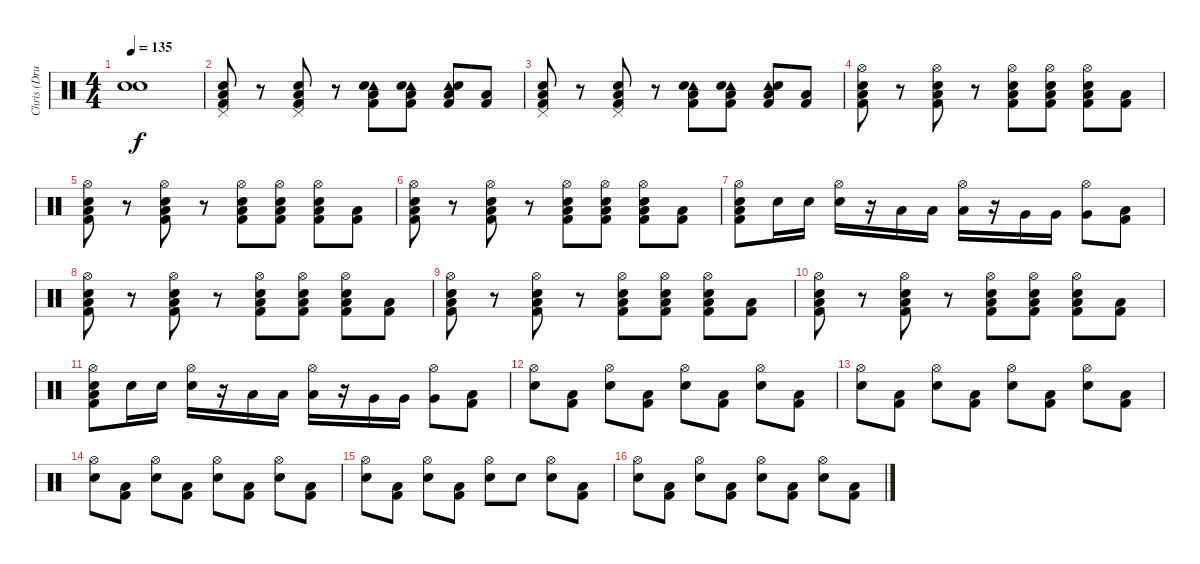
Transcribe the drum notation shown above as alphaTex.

\track ("Chris (Drums)" "Chris (Dru") {instrument percussion}
\staff {score}
\articulation defaults
\ts (4 4)
\tempo 135
\clef neutral
\ks c
("Snare (hit)"{t} "Snare (hit)"{t}).1{dy f} |
("Pedal Hi-Hat (hit)" "Low Floor Tom (hit)" "Snare (hit) 2" "Kick (hit) 2").8 r.8 ("Pedal Hi-Hat (hit)" "Low Floor Tom (hit)" "Snare (hit) 2" "Kick (hit) 2").8 r.8 ("Tambourine (hit)" "Low Floor Tom (hit)" "Snare (hit) 2" "Kick (hit) 2").8 ("Tambourine (hit)" "Low Floor Tom (hit)" "Snare (hit) 2" "Kick (hit) 2").8 ("Tambourine (hit)" "Low Floor Tom (hit)" "Snare (hit) 2" "Kick (hit) 2").8 ("Low Floor Tom (hit)" "Kick (hit) 2").8 |
("Pedal Hi-Hat (hit)" "Low Floor Tom (hit)" "Snare (hit) 2" "Kick (hit) 2").8 r.8 ("Pedal Hi-Hat (hit)" "Low Floor Tom (hit)" "Snare (hit) 2" "Kick (hit) 2").8 r.8 ("Tambourine (hit)" "Low Floor Tom (hit)" "Snare (hit) 2" "Kick (hit) 2").8 ("Tambourine (hit)" "Low Floor Tom (hit)" "Snare (hit) 2" "Kick (hit) 2").8 ("Tambourine (hit)" "Low Floor Tom (hit)" "Snare (hit) 2" "Kick (hit) 2").8 ("Low Floor Tom (hit)" "Kick (hit) 2").8 |
("Hi-Hat (open)" "Low Floor Tom (hit)" "Snare (hit) 2" "Kick (hit) 2").8 r.8 ("Hi-Hat (open)" "Low Floor Tom (hit)" "Snare (hit) 2" "Kick (hit) 2").8 r.8 ("Hi-Hat (open)" "Low Floor Tom (hit)" "Snare (hit) 2" "Kick (hit) 2").8 ("Hi-Hat (open)" "Low Floor Tom (hit)" "Snare (hit) 2" "Kick (hit) 2").8 ("Hi-Hat (open)" "Low Floor Tom (hit)" "Snare (hit) 2" "Kick (hit) 2").8 ("Low Floor Tom (hit)" "Kick (hit) 2").8 |
("Hi-Hat (open)" "Low Floor Tom (hit)" "Snare (hit) 2" "Kick (hit) 2").8 r.8 ("Hi-Hat (open)" "Low Floor Tom (hit)" "Snare (hit) 2" "Kick (hit) 2").8 r.8 ("Hi-Hat (open)" "Low Floor Tom (hit)" "Snare (hit) 2" "Kick (hit) 2").8 ("Hi-Hat (open)" "Low Floor Tom (hit)" "Snare (hit) 2" "Kick (hit) 2").8 ("Hi-Hat (open)" "Low Floor Tom (hit)" "Snare (hit) 2" "Kick (hit) 2").8 ("Low Floor Tom (hit)" "Kick (hit) 2").8 |
("Hi-Hat (open)" "Low Floor Tom (hit)" "Snare (hit) 2" "Kick (hit) 2").8 r.8 ("Hi-Hat (open)" "Low Floor Tom (hit)" "Snare (hit) 2" "Kick (hit) 2").8 r.8 ("Hi-Hat (open)" "Low Floor Tom (hit)" "Snare (hit) 2" "Kick (hit) 2").8 ("Hi-Hat (open)" "Low Floor Tom (hit)" "Snare (hit) 2" "Kick (hit) 2").8 ("Hi-Hat (open)" "Low Floor Tom (hit)" "Snare (hit) 2" "Kick (hit) 2").8 ("Low Floor Tom (hit)" "Kick (hit) 2").8 |
("Hi-Hat (open)" "Snare (hit) 2" "Low Floor Tom (hit)" "Kick (hit) 2").8 "Snare (hit) 2".16 "Snare (hit) 2".16 ("Hi-Hat (open)" "Snare (hit) 2").16 r.16 "Low Tom (hit)".16 "Low Tom (hit)".16 ("Hi-Hat (open)" "Low Tom (hit)").16 r.16 "Very Low Tom (hit)".16 "Very Low Tom (hit)".16 ("Hi-Hat (open)" "Very Low Tom (hit)").8 ("Low Floor Tom (hit)" "Kick (hit) 2").8 |
("Hi-Hat (open)" "Low Floor Tom (hit)" "Snare (hit) 2" "Kick (hit) 2").8 r.8 ("Hi-Hat (open)" "Low Floor Tom (hit)" "Snare (hit) 2" "Kick (hit) 2").8 r.8 ("Hi-Hat (open)" "Low Floor Tom (hit)" "Snare (hit) 2" "Kick (hit) 2").8 ("Hi-Hat (open)" "Low Floor Tom (hit)" "Snare (hit) 2" "Kick (hit) 2").8 ("Hi-Hat (open)" "Low Floor Tom (hit)" "Snare (hit) 2" "Kick (hit) 2").8 ("Low Floor Tom (hit)" "Kick (hit) 2").8 |
("Hi-Hat (open)" "Low Floor Tom (hit)" "Snare (hit) 2" "Kick (hit) 2").8 r.8 ("Hi-Hat (open)" "Low Floor Tom (hit)" "Snare (hit) 2" "Kick (hit) 2").8 r.8 ("Hi-Hat (open)" "Low Floor Tom (hit)" "Snare (hit) 2" "Kick (hit) 2").8 ("Hi-Hat (open)" "Low Floor Tom (hit)" "Snare (hit) 2" "Kick (hit) 2").8 ("Hi-Hat (open)" "Low Floor Tom (hit)" "Snare (hit) 2" "Kick (hit) 2").8 ("Low Floor Tom (hit)" "Kick (hit) 2").8 |
("Hi-Hat (open)" "Low Floor Tom (hit)" "Snare (hit) 2" "Kick (hit) 2").8 r.8 ("Hi-Hat (open)" "Low Floor Tom (hit)" "Snare (hit) 2" "Kick (hit) 2").8 r.8 ("Hi-Hat (open)" "Low Floor Tom (hit)" "Snare (hit) 2" "Kick (hit) 2").8 ("Hi-Hat (open)" "Low Floor Tom (hit)" "Snare (hit) 2" "Kick (hit) 2").8 ("Hi-Hat (open)" "Low Floor Tom (hit)" "Snare (hit) 2" "Kick (hit) 2").8 ("Low Floor Tom (hit)" "Kick (hit) 2").8 |
("Hi-Hat (open)" "Snare (hit) 2" "Low Floor Tom (hit)" "Kick (hit) 2").8 "Snare (hit) 2".16 "Snare (hit) 2".16 ("Hi-Hat (open)" "Snare (hit) 2").16 r.16 "Low Tom (hit)".16 "Low Tom (hit)".16 ("Hi-Hat (open)" "Low Tom (hit)").16 r.16 "Very Low Tom (hit)".16 "Very Low Tom (hit)".16 ("Hi-Hat (open)" "Very Low Tom (hit)").8 ("Low Floor Tom (hit)" "Kick (hit) 2").8 |
("Hi-Hat (open)" "Snare (hit) 2").8 ("Kick (hit) 2" "Low Floor Tom (hit)").8 ("Hi-Hat (open)" "Snare (hit) 2").8 ("Kick (hit) 2" "Low Floor Tom (hit)").8 ("Hi-Hat (open)" "Snare (hit) 2").8 ("Kick (hit) 2" "Low Floor Tom (hit)").8 ("Hi-Hat (open)" "Snare (hit) 2").8 ("Kick (hit) 2" "Low Floor Tom (hit)").8 |
("Hi-Hat (open)" "Snare (hit) 2").8 ("Kick (hit) 2" "Low Floor Tom (hit)").8 ("Hi-Hat (open)" "Snare (hit) 2").8 ("Kick (hit) 2" "Low Floor Tom (hit)").8 ("Hi-Hat (open)" "Snare (hit) 2").8 ("Kick (hit) 2" "Low Floor Tom (hit)").8 ("Hi-Hat (open)" "Snare (hit) 2").8 ("Kick (hit) 2" "Low Floor Tom (hit)").8 |
("Hi-Hat (open)" "Snare (hit) 2").8 ("Kick (hit) 2" "Low Floor Tom (hit)").8 ("Hi-Hat (open)" "Snare (hit) 2").8 ("Kick (hit) 2" "Low Floor Tom (hit)").8 ("Hi-Hat (open)" "Snare (hit) 2").8 ("Kick (hit) 2" "Low Floor Tom (hit)").8 ("Hi-Hat (open)" "Snare (hit) 2").8 ("Kick (hit) 2" "Low Floor Tom (hit)").8 |
("Hi-Hat (open)" "Snare (hit) 2").8 ("Kick (hit) 2" "Low Floor Tom (hit)").8 ("Hi-Hat (open)" "Snare (hit) 2").8 ("Kick (hit) 2" "Low Floor Tom (hit)").8 ("Hi-Hat (open)" "Snare (hit) 2").8 "Snare (hit) 2".8 ("Hi-Hat (open)" "Snare (hit) 2").8 ("Kick (hit) 2" "Low Floor Tom (hit)").8 |
("Hi-Hat (open)" "Snare (hit) 2").8 ("Kick (hit) 2" "Low Floor Tom (hit)").8 ("Hi-Hat (open)" "Snare (hit) 2").8 ("Kick (hit) 2" "Low Floor Tom (hit)").8 ("Hi-Hat (open)" "Snare (hit) 2").8 ("Kick (hit) 2" "Low Floor Tom (hit)").8 ("Hi-Hat (open)" "Snare (hit) 2").8 ("Kick (hit) 2" "Low Floor Tom (hit)").8
